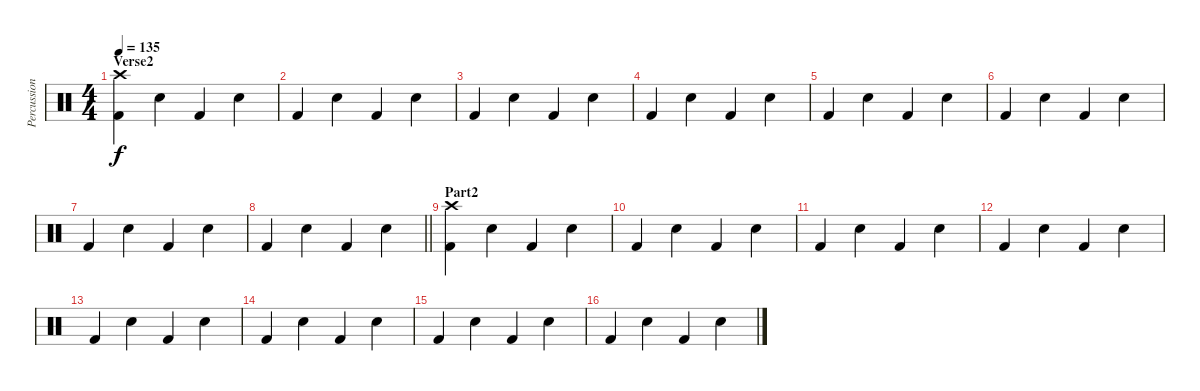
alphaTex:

\track ("Percussion" "Percussion") {instrument percussion}
\staff
\articulation defaults
\ts (4 4)
\section ("" "Verse2")
\tempo 135
\clef neutral
\ks c
("Crash high (hit)" "Kick (hit) 2").4{dy f} "Snare (hit) 2".4 "Kick (hit) 2".4 "Snare (hit) 2".4 |
"Kick (hit) 2".4 "Snare (hit) 2".4 "Kick (hit) 2".4 "Snare (hit) 2".4 |
"Kick (hit) 2".4 "Snare (hit) 2".4 "Kick (hit) 2".4 "Snare (hit) 2".4 |
"Kick (hit) 2".4 "Snare (hit) 2".4 "Kick (hit) 2".4 "Snare (hit) 2".4 |
"Kick (hit) 2".4 "Snare (hit) 2".4 "Kick (hit) 2".4 "Snare (hit) 2".4 |
"Kick (hit) 2".4 "Snare (hit) 2".4 "Kick (hit) 2".4 "Snare (hit) 2".4 |
"Kick (hit) 2".4 "Snare (hit) 2".4 "Kick (hit) 2".4 "Snare (hit) 2".4 |
\barLineRight lightlight "Kick (hit) 2".4 "Snare (hit) 2".4 "Kick (hit) 2".4 "Snare (hit) 2".4
|
\section ("" "Part2")
("Crash high (hit)" "Kick (hit) 2").4 "Snare (hit) 2".4 "Kick (hit) 2".4 "Snare (hit) 2".4 |
"Kick (hit) 2".4 "Snare (hit) 2".4 "Kick (hit) 2".4 "Snare (hit) 2".4 |
"Kick (hit) 2".4 "Snare (hit) 2".4 "Kick (hit) 2".4 "Snare (hit) 2".4 |
"Kick (hit) 2".4 "Snare (hit) 2".4 "Kick (hit) 2".4 "Snare (hit) 2".4 |
"Kick (hit) 2".4 "Snare (hit) 2".4 "Kick (hit) 2".4 "Snare (hit) 2".4 |
"Kick (hit) 2".4 "Snare (hit) 2".4 "Kick (hit) 2".4 "Snare (hit) 2".4 |
"Kick (hit) 2".4 "Snare (hit) 2".4 "Kick (hit) 2".4 "Snare (hit) 2".4 |
"Kick (hit) 2".4 "Snare (hit) 2".4 "Kick (hit) 2".4 "Snare (hit) 2".4
